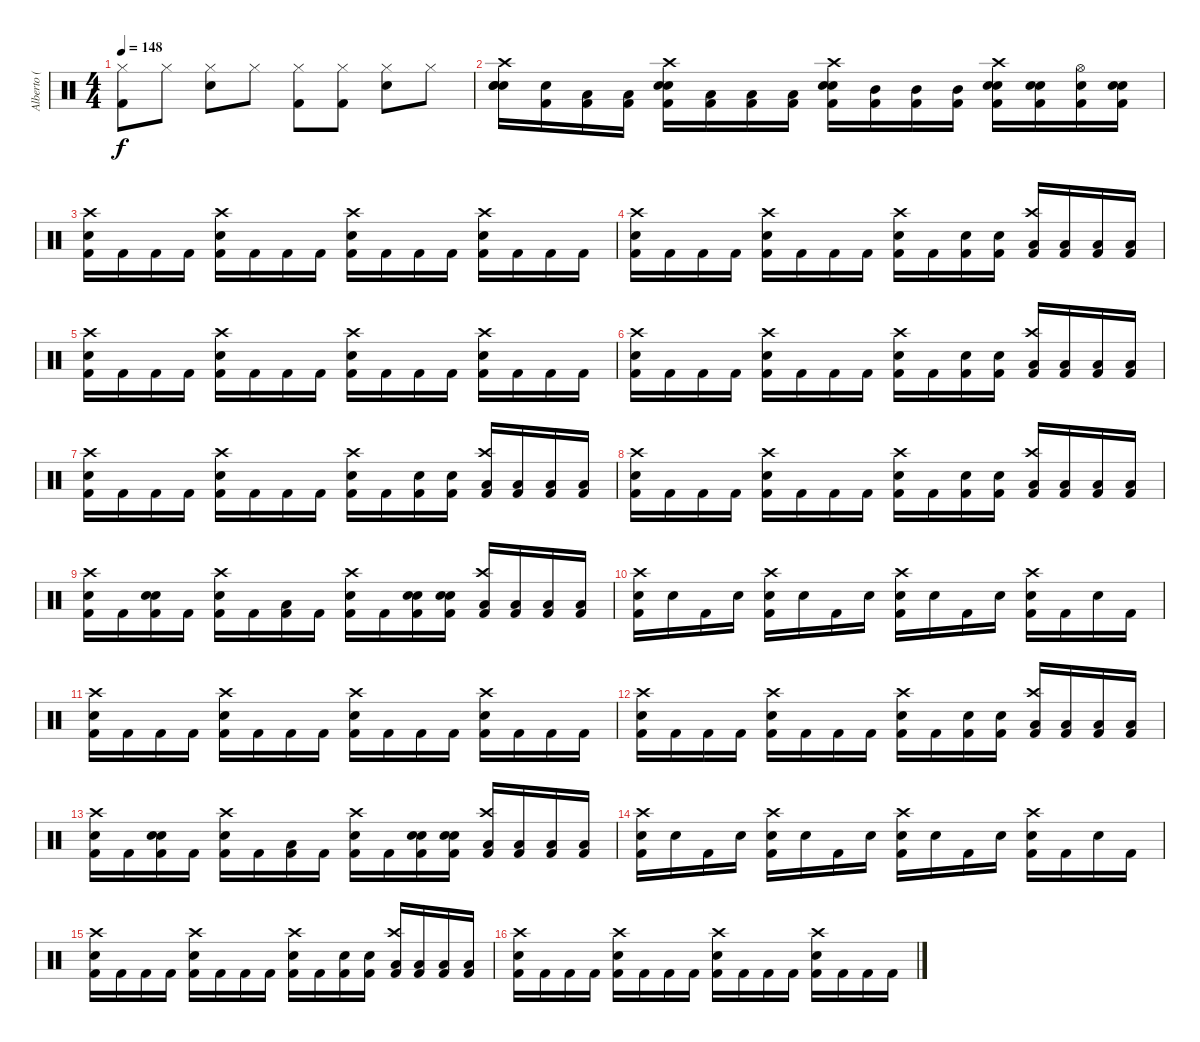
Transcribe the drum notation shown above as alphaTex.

\track ("Alberto ( Tohi )" "Alberto ( ") {instrument percussion}
\staff {score}
\articulation defaults
\ts (4 4)
\tempo 148
\clef neutral
\ks c
("Hi-Hat (closed)" "Kick (hit) 2").8{dy f} "Hi-Hat (closed)".8 ("Hi-Hat (closed)" "Electric Snare (hit)").8 "Hi-Hat (closed)".8 ("Hi-Hat (closed)" "Kick (hit) 2").8 ("Hi-Hat (closed)" "Kick (hit) 2").8 ("Hi-Hat (closed)" "Electric Snare (hit)").8 "Hi-Hat (closed)".8 |
("Crash high (hit)" "Electric Snare (hit)" "Electric Snare (hit)" "Electric Snare (hit)").16 ("Electric Snare (hit)" "Kick (hit) 2").16 ("Low Tom (hit)" "Kick (hit) 2").16 ("Low Tom (hit)" "Kick (hit) 2").16 ("Crash high (hit)" "Electric Snare (hit)" "Electric Snare (hit)" "Kick (hit) 2").16 ("Low Floor Tom (hit)" "Kick (hit) 2").16 ("Low Floor Tom (hit)" "Kick (hit) 2").16 ("Low Floor Tom (hit)" "Kick (hit) 2").16 ("Crash high (hit)" "Electric Snare (hit)" "Electric Snare (hit)" "Kick (hit) 2").16 ("Mid Tom (hit)" "Kick (hit) 2").16 ("Mid Tom (hit)" "Kick (hit) 2").16 ("Mid Tom (hit)" "Kick (hit) 2").16 ("Crash high (hit)" "Electric Snare (hit)" "Electric Snare (hit)" "Kick (hit) 2").16 ("Electric Snare (hit)" "Electric Snare (hit)" "Kick (hit) 2").16 ("Hi-Hat (open)" "Electric Snare (hit)" "Kick (hit) 2").16 ("Electric Snare (hit)" "Electric Snare (hit)" "Kick (hit) 2").16 |
("Crash high (hit)" "Electric Snare (hit)" "Kick (hit) 2").16 "Kick (hit) 2".16 "Kick (hit) 2".16 "Kick (hit) 2".16 ("Crash high (hit)" "Electric Snare (hit)" "Kick (hit) 2").16 "Kick (hit) 2".16 "Kick (hit) 2".16 "Kick (hit) 2".16 ("Crash high (hit)" "Electric Snare (hit)" "Kick (hit) 2").16 "Kick (hit) 2".16 "Kick (hit) 2".16 "Kick (hit) 2".16 ("Crash high (hit)" "Electric Snare (hit)" "Kick (hit) 2").16 "Kick (hit) 2".16 "Kick (hit) 2".16 "Kick (hit) 2".16 |
("Crash high (hit)" "Electric Snare (hit)" "Kick (hit) 2").16 "Kick (hit) 2".16 "Kick (hit) 2".16 "Kick (hit) 2".16 ("Crash high (hit)" "Electric Snare (hit)" "Kick (hit) 2").16 "Kick (hit) 2".16 "Kick (hit) 2".16 "Kick (hit) 2".16 ("Crash high (hit)" "Electric Snare (hit)" "Kick (hit) 2").16 "Kick (hit) 2".16 ("Electric Snare (hit)" "Kick (hit) 2").16 ("Electric Snare (hit)" "Kick (hit) 2").16 ("Crash high (hit)" "Low Tom (hit)" "Kick (hit) 2").16 ("Low Tom (hit)" "Kick (hit) 2").16 ("Low Floor Tom (hit)" "Kick (hit) 2").16 ("Low Floor Tom (hit)" "Kick (hit) 2").16 |
("Crash high (hit)" "Electric Snare (hit)" "Kick (hit) 2").16 "Kick (hit) 2".16 "Kick (hit) 2".16 "Kick (hit) 2".16 ("Crash high (hit)" "Electric Snare (hit)" "Kick (hit) 2").16 "Kick (hit) 2".16 "Kick (hit) 2".16 "Kick (hit) 2".16 ("Crash high (hit)" "Electric Snare (hit)" "Kick (hit) 2").16 "Kick (hit) 2".16 "Kick (hit) 2".16 "Kick (hit) 2".16 ("Crash high (hit)" "Electric Snare (hit)" "Kick (hit) 2").16 "Kick (hit) 2".16 "Kick (hit) 2".16 "Kick (hit) 2".16 |
("Crash high (hit)" "Electric Snare (hit)" "Kick (hit) 2").16 "Kick (hit) 2".16 "Kick (hit) 2".16 "Kick (hit) 2".16 ("Crash high (hit)" "Electric Snare (hit)" "Kick (hit) 2").16 "Kick (hit) 2".16 "Kick (hit) 2".16 "Kick (hit) 2".16 ("Crash high (hit)" "Electric Snare (hit)" "Kick (hit) 2").16 "Kick (hit) 2".16 ("Electric Snare (hit)" "Kick (hit) 2").16 ("Electric Snare (hit)" "Kick (hit) 2").16 ("Crash high (hit)" "Low Tom (hit)" "Kick (hit) 2").16 ("Low Tom (hit)" "Kick (hit) 2").16 ("Low Floor Tom (hit)" "Kick (hit) 2").16 ("Low Floor Tom (hit)" "Kick (hit) 2").16 |
("Crash high (hit)" "Electric Snare (hit)" "Kick (hit) 2").16 "Kick (hit) 2".16 "Kick (hit) 2".16 "Kick (hit) 2".16 ("Crash high (hit)" "Electric Snare (hit)" "Kick (hit) 2").16 "Kick (hit) 2".16 "Kick (hit) 2".16 "Kick (hit) 2".16 ("Crash high (hit)" "Electric Snare (hit)" "Kick (hit) 2").16 "Kick (hit) 2".16 ("Electric Snare (hit)" "Kick (hit) 2").16 ("Electric Snare (hit)" "Kick (hit) 2").16 ("Crash high (hit)" "Low Tom (hit)" "Kick (hit) 2").16 ("Low Tom (hit)" "Kick (hit) 2").16 ("Low Floor Tom (hit)" "Kick (hit) 2").16 ("Low Floor Tom (hit)" "Kick (hit) 2").16 |
("Crash high (hit)" "Electric Snare (hit)" "Kick (hit) 2").16 "Kick (hit) 2".16 "Kick (hit) 2".16 "Kick (hit) 2".16 ("Crash high (hit)" "Electric Snare (hit)" "Kick (hit) 2").16 "Kick (hit) 2".16 "Kick (hit) 2".16 "Kick (hit) 2".16 ("Crash high (hit)" "Electric Snare (hit)" "Kick (hit) 2").16 "Kick (hit) 2".16 ("Electric Snare (hit)" "Kick (hit) 2").16 ("Electric Snare (hit)" "Kick (hit) 2").16 ("Crash high (hit)" "Low Tom (hit)" "Kick (hit) 2").16 ("Low Tom (hit)" "Kick (hit) 2").16 ("Low Floor Tom (hit)" "Kick (hit) 2").16 ("Low Floor Tom (hit)" "Kick (hit) 2").16 |
("Crash high (hit)" "Electric Snare (hit)" "Kick (hit) 2").16 "Kick (hit) 2".16 ("Electric Snare (hit)" "Electric Snare (hit)" "Kick (hit) 2").16 "Kick (hit) 2".16 ("Crash high (hit)" "Electric Snare (hit)" "Kick (hit) 2").16 "Kick (hit) 2".16 ("Low Tom (hit)" "Kick (hit) 2").16 "Kick (hit) 2".16 ("Crash high (hit)" "Electric Snare (hit)" "Kick (hit) 2").16 "Kick (hit) 2".16 ("Electric Snare (hit)" "Electric Snare (hit)" "Kick (hit) 2").16 ("Electric Snare (hit)" "Electric Snare (hit)" "Kick (hit) 2").16 ("Crash high (hit)" "Low Tom (hit)" "Kick (hit) 2").16 ("Low Tom (hit)" "Kick (hit) 2").16 ("Low Floor Tom (hit)" "Kick (hit) 2").16 ("Low Floor Tom (hit)" "Kick (hit) 2").16 |
("Crash high (hit)" "Electric Snare (hit)" "Kick (hit) 2").16 "Snare (hit) 2".16 "Kick (hit) 2".16 "Snare (hit) 2".16 ("Crash high (hit)" "Electric Snare (hit)" "Kick (hit) 2").16 "Snare (hit) 2".16 "Kick (hit) 2".16 "Snare (hit) 2".16 ("Crash high (hit)" "Electric Snare (hit)" "Kick (hit) 2").16 "Snare (hit) 2".16 "Kick (hit) 2".16 "Snare (hit) 2".16 ("Crash high (hit)" "Electric Snare (hit)" "Kick (hit) 2").16 "Kick (hit) 2".16 "Snare (hit) 2".16 "Kick (hit) 2".16 |
("Crash high (hit)" "Electric Snare (hit)" "Kick (hit) 2").16 "Kick (hit) 2".16 "Kick (hit) 2".16 "Kick (hit) 2".16 ("Crash high (hit)" "Electric Snare (hit)" "Kick (hit) 2").16 "Kick (hit) 2".16 "Kick (hit) 2".16 "Kick (hit) 2".16 ("Crash high (hit)" "Electric Snare (hit)" "Kick (hit) 2").16 "Kick (hit) 2".16 "Kick (hit) 2".16 "Kick (hit) 2".16 ("Crash high (hit)" "Electric Snare (hit)" "Kick (hit) 2").16 "Kick (hit) 2".16 "Kick (hit) 2".16 "Kick (hit) 2".16 |
("Crash high (hit)" "Electric Snare (hit)" "Kick (hit) 2").16 "Kick (hit) 2".16 "Kick (hit) 2".16 "Kick (hit) 2".16 ("Crash high (hit)" "Electric Snare (hit)" "Kick (hit) 2").16 "Kick (hit) 2".16 "Kick (hit) 2".16 "Kick (hit) 2".16 ("Crash high (hit)" "Electric Snare (hit)" "Kick (hit) 2").16 "Kick (hit) 2".16 ("Electric Snare (hit)" "Kick (hit) 2").16 ("Electric Snare (hit)" "Kick (hit) 2").16 ("Crash high (hit)" "Low Tom (hit)" "Kick (hit) 2").16 ("Low Tom (hit)" "Kick (hit) 2").16 ("Low Floor Tom (hit)" "Kick (hit) 2").16 ("Low Floor Tom (hit)" "Kick (hit) 2").16 |
("Crash high (hit)" "Electric Snare (hit)" "Kick (hit) 2").16 "Kick (hit) 2".16 ("Electric Snare (hit)" "Electric Snare (hit)" "Kick (hit) 2").16 "Kick (hit) 2".16 ("Crash high (hit)" "Electric Snare (hit)" "Kick (hit) 2").16 "Kick (hit) 2".16 ("Low Tom (hit)" "Kick (hit) 2").16 "Kick (hit) 2".16 ("Crash high (hit)" "Electric Snare (hit)" "Kick (hit) 2").16 "Kick (hit) 2".16 ("Electric Snare (hit)" "Electric Snare (hit)" "Kick (hit) 2").16 ("Electric Snare (hit)" "Electric Snare (hit)" "Kick (hit) 2").16 ("Crash high (hit)" "Low Tom (hit)" "Kick (hit) 2").16 ("Low Tom (hit)" "Kick (hit) 2").16 ("Low Floor Tom (hit)" "Kick (hit) 2").16 ("Low Floor Tom (hit)" "Kick (hit) 2").16 |
("Crash high (hit)" "Electric Snare (hit)" "Kick (hit) 2").16 "Snare (hit) 2".16 "Kick (hit) 2".16 "Snare (hit) 2".16 ("Crash high (hit)" "Electric Snare (hit)" "Kick (hit) 2").16 "Snare (hit) 2".16 "Kick (hit) 2".16 "Snare (hit) 2".16 ("Crash high (hit)" "Electric Snare (hit)" "Kick (hit) 2").16 "Snare (hit) 2".16 "Kick (hit) 2".16 "Snare (hit) 2".16 ("Crash high (hit)" "Electric Snare (hit)" "Kick (hit) 2").16 "Kick (hit) 2".16 "Snare (hit) 2".16 "Kick (hit) 2".16 |
("Crash high (hit)" "Electric Snare (hit)" "Kick (hit) 2").16 "Kick (hit) 2".16 "Kick (hit) 2".16 "Kick (hit) 2".16 ("Crash high (hit)" "Electric Snare (hit)" "Kick (hit) 2").16 "Kick (hit) 2".16 "Kick (hit) 2".16 "Kick (hit) 2".16 ("Crash high (hit)" "Electric Snare (hit)" "Kick (hit) 2").16 "Kick (hit) 2".16 ("Electric Snare (hit)" "Kick (hit) 2").16 ("Electric Snare (hit)" "Kick (hit) 2").16 ("Crash high (hit)" "Low Tom (hit)" "Kick (hit) 2").16 ("Low Tom (hit)" "Kick (hit) 2").16 ("Low Floor Tom (hit)" "Kick (hit) 2").16 ("Low Floor Tom (hit)" "Kick (hit) 2").16 |
("Crash high (hit)" "Electric Snare (hit)" "Kick (hit) 2").16 "Kick (hit) 2".16 "Kick (hit) 2".16 "Kick (hit) 2".16 ("Crash high (hit)" "Electric Snare (hit)" "Kick (hit) 2").16 "Kick (hit) 2".16 "Kick (hit) 2".16 "Kick (hit) 2".16 ("Crash high (hit)" "Electric Snare (hit)" "Kick (hit) 2").16 "Kick (hit) 2".16 "Kick (hit) 2".16 "Kick (hit) 2".16 ("Crash high (hit)" "Electric Snare (hit)" "Kick (hit) 2").16 "Kick (hit) 2".16 "Kick (hit) 2".16 "Kick (hit) 2".16
